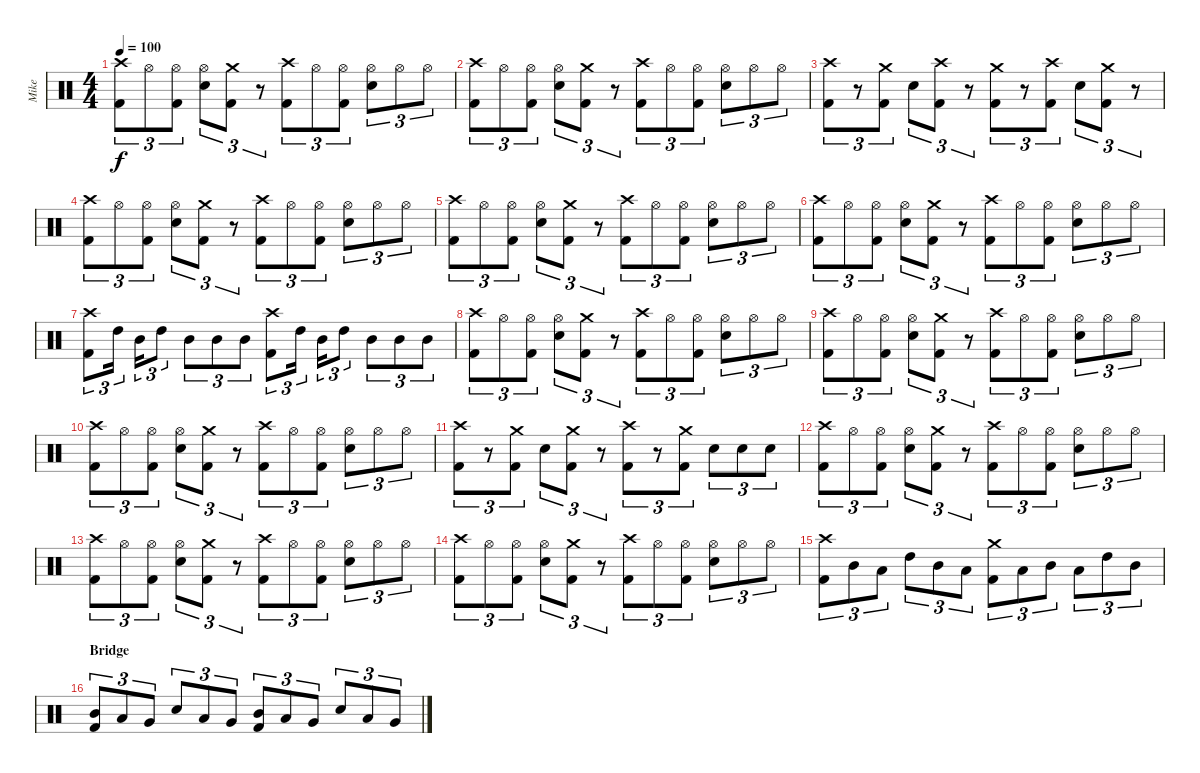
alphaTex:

\track ("Mike" "Mike") {instrument percussion}
\staff {score}
\articulation defaults
\ts (4 4)
\tempo 100
\clef neutral
\ks c
("Crash high (hit)" "Kick (hit) 2").8{tu (3 2) dy f} "Hi-Hat (open)".8{tu (3 2)} ("Hi-Hat (open)" "Kick (hit) 2").8{tu (3 2)} ("Hi-Hat (open)" "Electric Snare (hit)").8{tu (3 2)} ("Crash medium (hit)" "Kick (hit) 2").8{tu (3 2)} r.8{tu (3 2)} ("Crash high (hit)" "Kick (hit) 2").8{tu (3 2)} "Hi-Hat (open)".8{tu (3 2)} ("Hi-Hat (open)" "Kick (hit) 2").8{tu (3 2)} ("Hi-Hat (open)" "Electric Snare (hit)").8{tu (3 2)} "Hi-Hat (open)".8{tu (3 2)} "Hi-Hat (open)".8{tu (3 2)} |
("Crash high (hit)" "Kick (hit) 2").8{tu (3 2)} "Hi-Hat (open)".8{tu (3 2)} ("Hi-Hat (open)" "Kick (hit) 2").8{tu (3 2)} ("Hi-Hat (open)" "Electric Snare (hit)").8{tu (3 2)} ("Crash medium (hit)" "Kick (hit) 2").8{tu (3 2)} r.8{tu (3 2)} ("Crash high (hit)" "Kick (hit) 2").8{tu (3 2)} "Hi-Hat (open)".8{tu (3 2)} ("Hi-Hat (open)" "Kick (hit) 2").8{tu (3 2)} ("Hi-Hat (open)" "Electric Snare (hit)").8{tu (3 2)} "Hi-Hat (open)".8{tu (3 2)} "Hi-Hat (open)".8{tu (3 2)} |
("Crash high (hit)" "Kick (hit) 2").8{tu (3 2)} r.8{tu (3 2)} ("Crash medium (hit)" "Kick (hit) 2").8{tu (3 2)} "Electric Snare (hit)".8{tu (3 2)} ("Crash high (hit)" "Kick (hit) 2").8{tu (3 2)} r.8{tu (3 2)} ("Crash medium (hit)" "Kick (hit) 2").8{tu (3 2)} r.8{tu (3 2)} ("Crash high (hit)" "Kick (hit) 2").8{tu (3 2)} "Electric Snare (hit)".8{tu (3 2)} ("Crash medium (hit)" "Kick (hit) 2").8{tu (3 2)} r.8{tu (3 2)} |
("Crash high (hit)" "Kick (hit) 2").8{tu (3 2)} "Hi-Hat (open)".8{tu (3 2)} ("Hi-Hat (open)" "Kick (hit) 2").8{tu (3 2)} ("Hi-Hat (open)" "Electric Snare (hit)").8{tu (3 2)} ("Crash medium (hit)" "Kick (hit) 2").8{tu (3 2)} r.8{tu (3 2)} ("Crash high (hit)" "Kick (hit) 2").8{tu (3 2)} "Hi-Hat (open)".8{tu (3 2)} ("Hi-Hat (open)" "Kick (hit) 2").8{tu (3 2)} ("Hi-Hat (open)" "Electric Snare (hit)").8{tu (3 2)} "Hi-Hat (open)".8{tu (3 2)} "Hi-Hat (open)".8{tu (3 2)} |
("Crash high (hit)" "Kick (hit) 2").8{tu (3 2)} "Hi-Hat (open)".8{tu (3 2)} ("Hi-Hat (open)" "Kick (hit) 2").8{tu (3 2)} ("Hi-Hat (open)" "Electric Snare (hit)").8{tu (3 2)} ("Crash medium (hit)" "Kick (hit) 2").8{tu (3 2)} r.8{tu (3 2)} ("Crash high (hit)" "Kick (hit) 2").8{tu (3 2)} "Hi-Hat (open)".8{tu (3 2)} ("Hi-Hat (open)" "Kick (hit) 2").8{tu (3 2)} ("Hi-Hat (open)" "Electric Snare (hit)").8{tu (3 2)} "Hi-Hat (open)".8{tu (3 2)} "Hi-Hat (open)".8{tu (3 2)} |
("Crash high (hit)" "Kick (hit) 2").8{tu (3 2)} "Hi-Hat (open)".8{tu (3 2)} ("Hi-Hat (open)" "Kick (hit) 2").8{tu (3 2)} ("Hi-Hat (open)" "Electric Snare (hit)").8{tu (3 2)} ("Crash medium (hit)" "Kick (hit) 2").8{tu (3 2)} r.8{tu (3 2)} ("Crash high (hit)" "Kick (hit) 2").8{tu (3 2)} "Hi-Hat (open)".8{tu (3 2)} ("Hi-Hat (open)" "Kick (hit) 2").8{tu (3 2)} ("Hi-Hat (open)" "Electric Snare (hit)").8{tu (3 2)} "Hi-Hat (open)".8{tu (3 2)} "Hi-Hat (open)".8{tu (3 2)} |
("Crash high (hit)" "Kick (hit) 2").8{tu (3 2)} "High Tom (hit)".16{tu (3 2)} "Mid Tom (hit)".16{tu (3 2)} "High Tom (hit)".8{tu (3 2)} "Mid Tom (hit)".8{tu (3 2)} "Mid Tom (hit)".8{tu (3 2)} "Mid Tom (hit)".8{tu (3 2)} ("Crash high (hit)" "Kick (hit) 2").8{tu (3 2)} "High Tom (hit)".16{tu (3 2)} "Mid Tom (hit)".16{tu (3 2)} "High Tom (hit)".8{tu (3 2)} "Mid Tom (hit)".8{tu (3 2)} "Mid Tom (hit)".8{tu (3 2)} "Mid Tom (hit)".8{tu (3 2)} |
("Crash high (hit)" "Kick (hit) 2").8{tu (3 2)} "Hi-Hat (open)".8{tu (3 2)} ("Hi-Hat (open)" "Kick (hit) 2").8{tu (3 2)} ("Hi-Hat (open)" "Electric Snare (hit)").8{tu (3 2)} ("Crash medium (hit)" "Kick (hit) 2").8{tu (3 2)} r.8{tu (3 2)} ("Crash high (hit)" "Kick (hit) 2").8{tu (3 2)} "Hi-Hat (open)".8{tu (3 2)} ("Hi-Hat (open)" "Kick (hit) 2").8{tu (3 2)} ("Hi-Hat (open)" "Electric Snare (hit)").8{tu (3 2)} "Hi-Hat (open)".8{tu (3 2)} "Hi-Hat (open)".8{tu (3 2)} |
("Crash high (hit)" "Kick (hit) 2").8{tu (3 2)} "Hi-Hat (open)".8{tu (3 2)} ("Hi-Hat (open)" "Kick (hit) 2").8{tu (3 2)} ("Hi-Hat (open)" "Electric Snare (hit)").8{tu (3 2)} ("Crash medium (hit)" "Kick (hit) 2").8{tu (3 2)} r.8{tu (3 2)} ("Crash high (hit)" "Kick (hit) 2").8{tu (3 2)} "Hi-Hat (open)".8{tu (3 2)} ("Hi-Hat (open)" "Kick (hit) 2").8{tu (3 2)} ("Hi-Hat (open)" "Electric Snare (hit)").8{tu (3 2)} "Hi-Hat (open)".8{tu (3 2)} "Hi-Hat (open)".8{tu (3 2)} |
("Crash high (hit)" "Kick (hit) 2").8{tu (3 2)} "Hi-Hat (open)".8{tu (3 2)} ("Hi-Hat (open)" "Kick (hit) 2").8{tu (3 2)} ("Hi-Hat (open)" "Electric Snare (hit)").8{tu (3 2)} ("Crash medium (hit)" "Kick (hit) 2").8{tu (3 2)} r.8{tu (3 2)} ("Crash high (hit)" "Kick (hit) 2").8{tu (3 2)} "Hi-Hat (open)".8{tu (3 2)} ("Hi-Hat (open)" "Kick (hit) 2").8{tu (3 2)} ("Hi-Hat (open)" "Electric Snare (hit)").8{tu (3 2)} "Hi-Hat (open)".8{tu (3 2)} "Hi-Hat (open)".8{tu (3 2)} |
("Crash high (hit)" "Kick (hit) 2").8{tu (3 2)} r.8{tu (3 2)} ("Crash medium (hit)" "Kick (hit) 2").8{tu (3 2)} "Electric Snare (hit)".8{tu (3 2)} ("Crash medium (hit)" "Kick (hit) 2").8{tu (3 2)} r.8{tu (3 2)} ("Crash high (hit)" "Kick (hit) 2").8{tu (3 2)} r.8{tu (3 2)} ("Crash medium (hit)" "Kick (hit) 2").8{tu (3 2)} "Electric Snare (hit)".8{tu (3 2)} "Electric Snare (hit)".8{tu (3 2)} "Electric Snare (hit)".8{tu (3 2)} |
("Crash high (hit)" "Kick (hit) 2").8{tu (3 2)} "Hi-Hat (open)".8{tu (3 2)} ("Hi-Hat (open)" "Kick (hit) 2").8{tu (3 2)} ("Hi-Hat (open)" "Electric Snare (hit)").8{tu (3 2)} ("Crash medium (hit)" "Kick (hit) 2").8{tu (3 2)} r.8{tu (3 2)} ("Crash high (hit)" "Kick (hit) 2").8{tu (3 2)} "Hi-Hat (open)".8{tu (3 2)} ("Hi-Hat (open)" "Kick (hit) 2").8{tu (3 2)} ("Hi-Hat (open)" "Electric Snare (hit)").8{tu (3 2)} "Hi-Hat (open)".8{tu (3 2)} "Hi-Hat (open)".8{tu (3 2)} |
("Crash high (hit)" "Kick (hit) 2").8{tu (3 2)} "Hi-Hat (open)".8{tu (3 2)} ("Hi-Hat (open)" "Kick (hit) 2").8{tu (3 2)} ("Hi-Hat (open)" "Electric Snare (hit)").8{tu (3 2)} ("Crash medium (hit)" "Kick (hit) 2").8{tu (3 2)} r.8{tu (3 2)} ("Crash high (hit)" "Kick (hit) 2").8{tu (3 2)} "Hi-Hat (open)".8{tu (3 2)} ("Hi-Hat (open)" "Kick (hit) 2").8{tu (3 2)} ("Hi-Hat (open)" "Electric Snare (hit)").8{tu (3 2)} "Hi-Hat (open)".8{tu (3 2)} "Hi-Hat (open)".8{tu (3 2)} |
("Crash high (hit)" "Kick (hit) 2").8{tu (3 2)} "Hi-Hat (open)".8{tu (3 2)} ("Hi-Hat (open)" "Kick (hit) 2").8{tu (3 2)} ("Hi-Hat (open)" "Electric Snare (hit)").8{tu (3 2)} ("Crash medium (hit)" "Kick (hit) 2").8{tu (3 2)} r.8{tu (3 2)} ("Crash high (hit)" "Kick (hit) 2").8{tu (3 2)} "Hi-Hat (open)".8{tu (3 2)} ("Hi-Hat (open)" "Kick (hit) 2").8{tu (3 2)} ("Hi-Hat (open)" "Electric Snare (hit)").8{tu (3 2)} "Hi-Hat (open)".8{tu (3 2)} "Hi-Hat (open)".8{tu (3 2)} |
("Crash high (hit)" "Kick (hit) 2").8{tu (3 2)} "Mid Tom (hit)".8{tu (3 2)} "Low Tom (hit)".8{tu (3 2)} "High Tom (hit)".8{tu (3 2)} "Mid Tom (hit)".8{tu (3 2)} "Low Tom (hit)".8{tu (3 2)} ("Crash medium (hit)" "Kick (hit) 2").8{tu (3 2)} "Low Tom (hit)".8{tu (3 2)} "Mid Tom (hit)".8{tu (3 2)} "Low Tom (hit)".8{tu (3 2)} "High Tom (hit)".8{tu (3 2)} "Mid Tom (hit)".8{tu (3 2)} |
\section ("" "Bridge")
("Mid Tom (hit)" "Kick (hit) 2").8{tu (3 2)} "Low Tom (hit)".8{tu (3 2)} "Very Low Tom (hit)".8{tu (3 2)} "Electric Snare (hit)".8{tu (3 2)} "Low Tom (hit)".8{tu (3 2)} "Very Low Tom (hit)".8{tu (3 2)} ("Mid Tom (hit)" "Kick (hit) 2").8{tu (3 2)} "Low Tom (hit)".8{tu (3 2)} "Very Low Tom (hit)".8{tu (3 2)} "Electric Snare (hit)".8{tu (3 2)} "Low Tom (hit)".8{tu (3 2)} "Very Low Tom (hit)".8{tu (3 2)}
